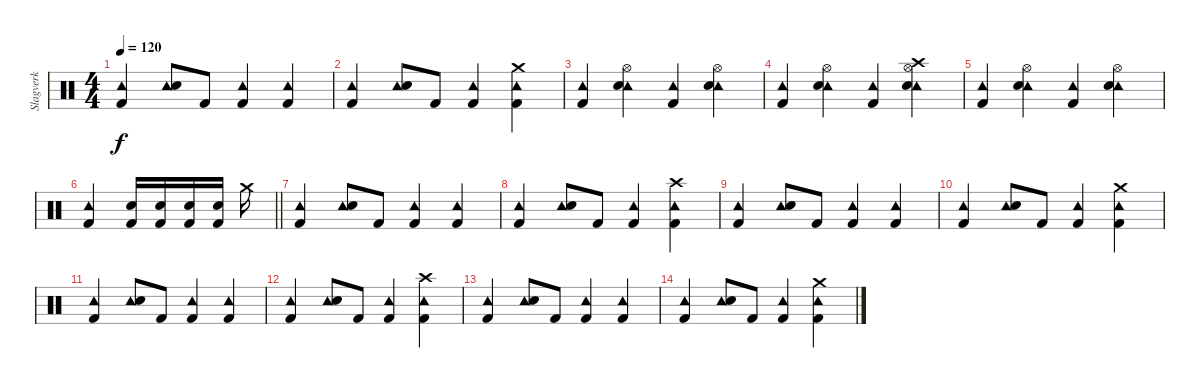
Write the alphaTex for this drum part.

\track ("Slagverk" "Slagverk") {instrument percussion}
\staff {score}
\articulation defaults
\ts (4 4)
\tempo 120
\clef neutral
\ks c
("Tambourine (hit)" "Kick (hit) 2").4{dy f} ("Tambourine (hit)" "Snare (hit) 2").8 "Kick (hit) 2".8 ("Tambourine (hit)" "Kick (hit) 2").4 ("Tambourine (hit)" "Kick (hit) 2").4 |
("Tambourine (hit)" "Kick (hit) 2").4 ("Tambourine (hit)" "Snare (hit) 2").8 "Kick (hit) 2".8 ("Tambourine (hit)" "Kick (hit) 2").4 ("Crash medium (hit)" "Tambourine (hit)" "Kick (hit) 2").4 |
("Tambourine (hit)" "Kick (hit) 2").4 ("Tambourine (hit)" "Hi-Hat (open)" "Snare (hit) 2").4 ("Tambourine (hit)" "Kick (hit) 2").4 ("Tambourine (hit)" "Hi-Hat (open)" "Snare (hit) 2").4 |
("Tambourine (hit)" "Kick (hit) 2").4 ("Tambourine (hit)" "Hi-Hat (open)" "Snare (hit) 2").4 ("Tambourine (hit)" "Kick (hit) 2").4 ("Tambourine (hit)" "Crash high (hit)" "Hi-Hat (open)" "Snare (hit) 2").4 |
("Tambourine (hit)" "Kick (hit) 2").4 ("Tambourine (hit)" "Hi-Hat (open)" "Snare (hit) 2").4 ("Tambourine (hit)" "Kick (hit) 2").4 ("Tambourine (hit)" "Hi-Hat (open)" "Snare (hit) 2").4 |
\barLineRight lightlight
("Tambourine (hit)" "Kick (hit) 2").4 ("Electric Snare (hit)" "Kick (hit) 2").16 ("Electric Snare (hit)" "Kick (hit) 2").16 ("Electric Snare (hit)" "Kick (hit) 2").16 ("Electric Snare (hit)" "Kick (hit) 2").16 "Crash medium (hit)".16 |
("Tambourine (hit)" "Kick (hit) 2").4 ("Tambourine (hit)" "Snare (hit) 2").8 "Kick (hit) 2".8 ("Tambourine (hit)" "Kick (hit) 2").4 ("Tambourine (hit)" "Kick (hit) 2").4 |
("Tambourine (hit)" "Kick (hit) 2").4 ("Tambourine (hit)" "Snare (hit) 2").8 "Kick (hit) 2".8 ("Tambourine (hit)" "Kick (hit) 2").4 ("Crash high (hit)" "Tambourine (hit)" "Kick (hit) 2").4 |
("Tambourine (hit)" "Kick (hit) 2").4 ("Tambourine (hit)" "Snare (hit) 2").8 "Kick (hit) 2".8 ("Tambourine (hit)" "Kick (hit) 2").4 ("Tambourine (hit)" "Kick (hit) 2").4 |
("Tambourine (hit)" "Kick (hit) 2").4 ("Tambourine (hit)" "Snare (hit) 2").8 "Kick (hit) 2".8 ("Tambourine (hit)" "Kick (hit) 2").4 ("Crash medium (hit)" "Tambourine (hit)" "Kick (hit) 2").4 |
("Tambourine (hit)" "Kick (hit) 2").4 ("Tambourine (hit)" "Snare (hit) 2").8 "Kick (hit) 2".8 ("Tambourine (hit)" "Kick (hit) 2").4 ("Tambourine (hit)" "Kick (hit) 2").4 |
("Tambourine (hit)" "Kick (hit) 2").4 ("Tambourine (hit)" "Snare (hit) 2").8 "Kick (hit) 2".8 ("Tambourine (hit)" "Kick (hit) 2").4 ("Crash high (hit)" "Tambourine (hit)" "Kick (hit) 2").4 |
("Tambourine (hit)" "Kick (hit) 2").4 ("Tambourine (hit)" "Snare (hit) 2").8 "Kick (hit) 2".8 ("Tambourine (hit)" "Kick (hit) 2").4 ("Tambourine (hit)" "Kick (hit) 2").4 |
("Tambourine (hit)" "Kick (hit) 2").4 ("Tambourine (hit)" "Snare (hit) 2").8 "Kick (hit) 2".8 ("Tambourine (hit)" "Kick (hit) 2").4 ("Crash medium (hit)" "Tambourine (hit)" "Kick (hit) 2").4
